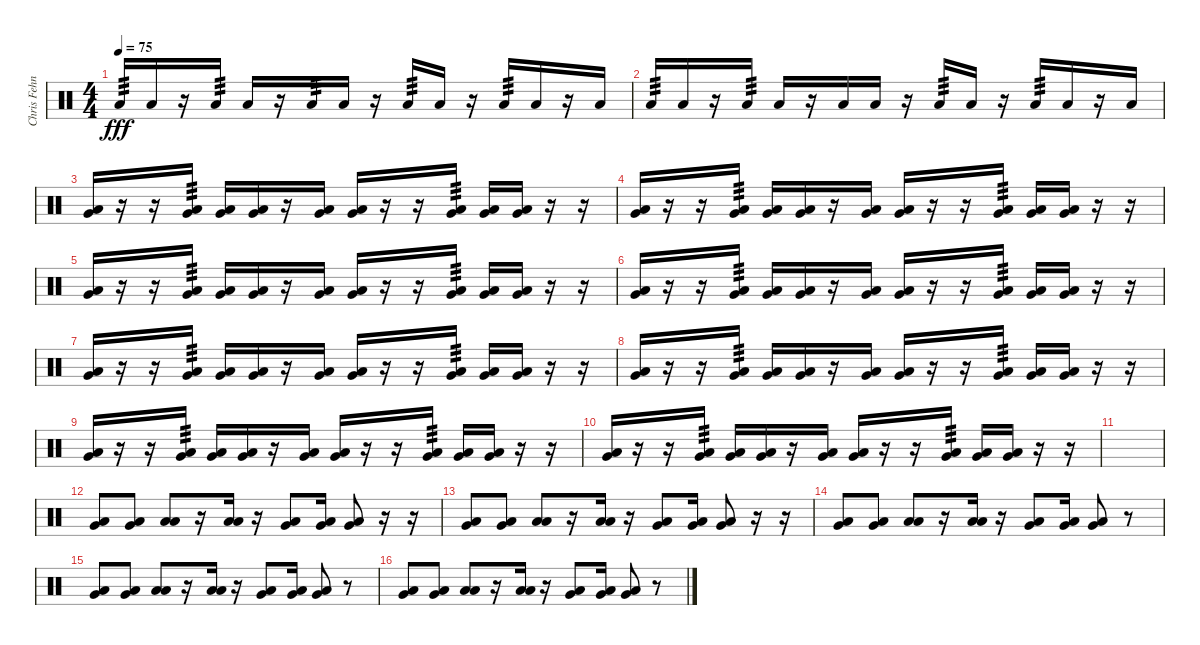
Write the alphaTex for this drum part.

\track ("Chris Fehn" "Chris Fehn") {instrument percussion}
\staff {score}
\articulation defaults
\ts (4 4)
\tempo 75
\clef neutral
\ks c "Low Floor Tom (hit)".16{tp 3 dy fff} "Low Floor Tom (hit)".16
r.16 "Low Floor Tom (hit)".16{tp 3} "Low Floor Tom (hit)".16 r.16 "Low Floor Tom (hit)".16{tp 3} "Low Floor Tom (hit)".16 r.16 "Low Floor Tom (hit)".16{tp 3} "Low Floor Tom (hit)".16 r.16 "Low Floor Tom (hit)".16{tp 3} "Low Floor Tom (hit)".16 r.16 "Low Floor Tom (hit)".16 |
"Low Floor Tom (hit)".16{tp 3} "Low Floor Tom (hit)".16 r.16 "Low Floor Tom (hit)".16{tp 3} "Low Floor Tom (hit)".16 r.16 "Low Floor Tom (hit)".16 "Low Floor Tom (hit)".16 r.16 "Low Floor Tom (hit)".16{tp 3} "Low Floor Tom (hit)".16 r.16 "Low Floor Tom (hit)".16{tp 3} "Low Floor Tom (hit)".16 r.16 "Low Floor Tom (hit)".16 |
("Very Low Tom (hit)" "Low Floor Tom (hit)").16 r.16 r.16 ("Very Low Tom (hit)" "Low Floor Tom (hit)").16{tp 3} ("Very Low Tom (hit)" "Low Floor Tom (hit)").16 ("Very Low Tom (hit)" "Low Floor Tom (hit)").16 r.16 ("Very Low Tom (hit)" "Low Floor Tom (hit)").16 ("Very Low Tom (hit)" "Low Floor Tom (hit)").16 r.16 r.16 ("Very Low Tom (hit)" "Low Floor Tom (hit)").16{tp 3} ("Very Low Tom (hit)" "Low Floor Tom (hit)").16 ("Very Low Tom (hit)" "Low Floor Tom (hit)").16 r.16 r.16 |
("Very Low Tom (hit)" "Low Floor Tom (hit)").16 r.16 r.16 ("Very Low Tom (hit)" "Low Floor Tom (hit)").16{tp 3} ("Very Low Tom (hit)" "Low Floor Tom (hit)").16 ("Very Low Tom (hit)" "Low Floor Tom (hit)").16 r.16 ("Very Low Tom (hit)" "Low Floor Tom (hit)").16 ("Very Low Tom (hit)" "Low Floor Tom (hit)").16 r.16 r.16 ("Very Low Tom (hit)" "Low Floor Tom (hit)").16{tp 3} ("Very Low Tom (hit)" "Low Floor Tom (hit)").16 ("Very Low Tom (hit)" "Low Floor Tom (hit)").16 r.16 r.16 |
("Very Low Tom (hit)" "Low Floor Tom (hit)").16 r.16 r.16 ("Very Low Tom (hit)" "Low Floor Tom (hit)").16{tp 3} ("Very Low Tom (hit)" "Low Floor Tom (hit)").16 ("Very Low Tom (hit)" "Low Floor Tom (hit)").16 r.16 ("Very Low Tom (hit)" "Low Floor Tom (hit)").16 ("Very Low Tom (hit)" "Low Floor Tom (hit)").16 r.16 r.16 ("Very Low Tom (hit)" "Low Floor Tom (hit)").16{tp 3} ("Very Low Tom (hit)" "Low Floor Tom (hit)").16 ("Very Low Tom (hit)" "Low Floor Tom (hit)").16 r.16 r.16 |
("Very Low Tom (hit)" "Low Floor Tom (hit)").16 r.16 r.16 ("Very Low Tom (hit)" "Low Floor Tom (hit)").16{tp 3} ("Very Low Tom (hit)" "Low Floor Tom (hit)").16 ("Very Low Tom (hit)" "Low Floor Tom (hit)").16 r.16 ("Very Low Tom (hit)" "Low Floor Tom (hit)").16 ("Very Low Tom (hit)" "Low Floor Tom (hit)").16 r.16 r.16 ("Very Low Tom (hit)" "Low Floor Tom (hit)").16{tp 3} ("Very Low Tom (hit)" "Low Floor Tom (hit)").16 ("Very Low Tom (hit)" "Low Floor Tom (hit)").16 r.16 r.16 |
("Very Low Tom (hit)" "Low Floor Tom (hit)").16 r.16 r.16 ("Very Low Tom (hit)" "Low Floor Tom (hit)").16{tp 3} ("Very Low Tom (hit)" "Low Floor Tom (hit)").16 ("Very Low Tom (hit)" "Low Floor Tom (hit)").16 r.16 ("Very Low Tom (hit)" "Low Floor Tom (hit)").16 ("Very Low Tom (hit)" "Low Floor Tom (hit)").16 r.16 r.16 ("Very Low Tom (hit)" "Low Floor Tom (hit)").16{tp 3} ("Very Low Tom (hit)" "Low Floor Tom (hit)").16 ("Very Low Tom (hit)" "Low Floor Tom (hit)").16 r.16 r.16 |
("Very Low Tom (hit)" "Low Floor Tom (hit)").16 r.16 r.16 ("Very Low Tom (hit)" "Low Floor Tom (hit)").16{tp 3} ("Very Low Tom (hit)" "Low Floor Tom (hit)").16 ("Very Low Tom (hit)" "Low Floor Tom (hit)").16 r.16 ("Very Low Tom (hit)" "Low Floor Tom (hit)").16 ("Very Low Tom (hit)" "Low Floor Tom (hit)").16 r.16 r.16 ("Very Low Tom (hit)" "Low Floor Tom (hit)").16{tp 3} ("Very Low Tom (hit)" "Low Floor Tom (hit)").16 ("Very Low Tom (hit)" "Low Floor Tom (hit)").16 r.16 r.16 |
("Very Low Tom (hit)" "Low Floor Tom (hit)").16 r.16 r.16 ("Very Low Tom (hit)" "Low Floor Tom (hit)").16{tp 3} ("Very Low Tom (hit)" "Low Floor Tom (hit)").16 ("Very Low Tom (hit)" "Low Floor Tom (hit)").16 r.16 ("Very Low Tom (hit)" "Low Floor Tom (hit)").16 ("Very Low Tom (hit)" "Low Floor Tom (hit)").16 r.16 r.16 ("Very Low Tom (hit)" "Low Floor Tom (hit)").16{tp 3} ("Very Low Tom (hit)" "Low Floor Tom (hit)").16 ("Very Low Tom (hit)" "Low Floor Tom (hit)").16 r.16 r.16 |
("Very Low Tom (hit)" "Low Floor Tom (hit)").16 r.16 r.16 ("Very Low Tom (hit)" "Low Floor Tom (hit)").16{tp 3} ("Very Low Tom (hit)" "Low Floor Tom (hit)").16 ("Very Low Tom (hit)" "Low Floor Tom (hit)").16 r.16 ("Very Low Tom (hit)" "Low Floor Tom (hit)").16 ("Very Low Tom (hit)" "Low Floor Tom (hit)").16 r.16 r.16 ("Very Low Tom (hit)" "Low Floor Tom (hit)").16{tp 3} ("Very Low Tom (hit)" "Low Floor Tom (hit)").16 ("Very Low Tom (hit)" "Low Floor Tom (hit)").16 r.16 r.16 |
|
("Very Low Tom (hit)" "Low Floor Tom (hit)").8 ("Very Low Tom (hit)" "Low Floor Tom (hit)").8 ("Low Tom (hit)" "Low Tom (hit)").8 r.16 ("Low Tom (hit)" "Low Tom (hit)").16 r.16 ("Low Floor Tom (hit)" "Very Low Tom (hit)").8 ("Very Low Tom (hit)" "Low Floor Tom (hit)").16 ("Very Low Tom (hit)" "Low Floor Tom (hit)").8 r.16 r.16 |
("Very Low Tom (hit)" "Low Floor Tom (hit)").8 ("Very Low Tom (hit)" "Low Floor Tom (hit)").8 ("Low Tom (hit)" "Low Tom (hit)").8 r.16 ("Low Tom (hit)" "Low Tom (hit)").16 r.16 ("Low Floor Tom (hit)" "Very Low Tom (hit)").8 ("Very Low Tom (hit)" "Low Floor Tom (hit)").16 ("Very Low Tom (hit)" "Low Floor Tom (hit)").8 r.16 r.16 |
("Very Low Tom (hit)" "Low Floor Tom (hit)").8 ("Very Low Tom (hit)" "Low Floor Tom (hit)").8 ("Low Tom (hit)" "Low Tom (hit)").8 r.16 ("Low Tom (hit)" "Low Tom (hit)").16 r.16 ("Low Floor Tom (hit)" "Very Low Tom (hit)").8 ("Very Low Tom (hit)" "Low Floor Tom (hit)").16 ("Very Low Tom (hit)" "Low Floor Tom (hit)").8 r.8 |
("Very Low Tom (hit)" "Low Floor Tom (hit)").8 ("Very Low Tom (hit)" "Low Floor Tom (hit)").8 ("Low Tom (hit)" "Low Tom (hit)").8 r.16 ("Low Tom (hit)" "Low Tom (hit)").16 r.16 ("Low Floor Tom (hit)" "Very Low Tom (hit)").8 ("Very Low Tom (hit)" "Low Floor Tom (hit)").16 ("Very Low Tom (hit)" "Low Floor Tom (hit)").8 r.8 |
("Very Low Tom (hit)" "Low Floor Tom (hit)").8 ("Very Low Tom (hit)" "Low Floor Tom (hit)").8 ("Low Tom (hit)" "Low Tom (hit)").8 r.16 ("Low Tom (hit)" "Low Tom (hit)").16 r.16 ("Low Floor Tom (hit)" "Very Low Tom (hit)").8 ("Very Low Tom (hit)" "Low Floor Tom (hit)").16 ("Very Low Tom (hit)" "Low Floor Tom (hit)").8 r.8
